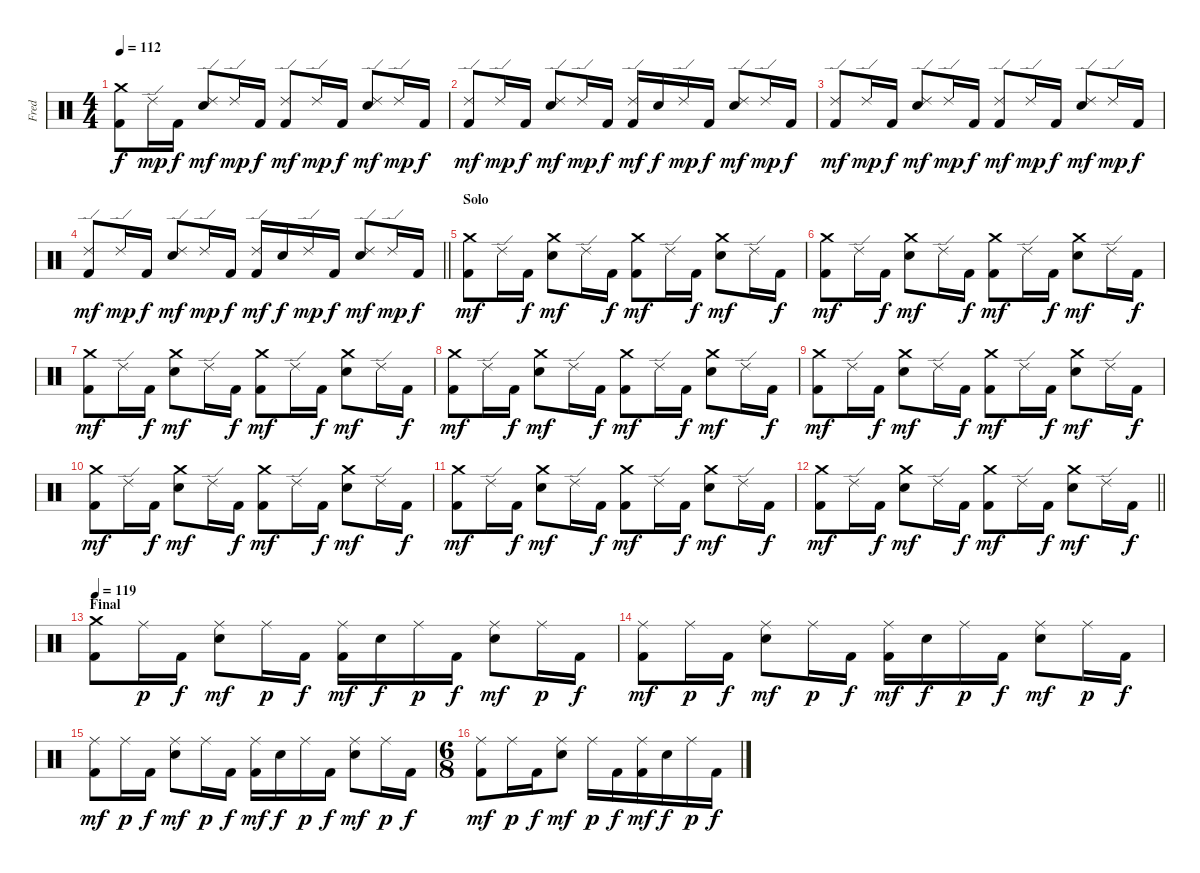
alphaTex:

\track ("Fred" "Fred") {instrument percussion}
\staff {score}
\articulation defaults
\ts (4 4)
\tempo 112
\clef neutral
\ks c
("Crash medium (hit)" "Kick (hit) 2").8{dy f} "Ride (edge) 2".16{dy mp} "Kick (hit) 2".16{dy f} ("Ride (edge) 2" "Electric Snare (hit)").8{dy mf} "Ride (edge) 2".16{dy mp} "Kick (hit) 2".16{dy f} ("Ride (edge) 2" "Kick (hit) 2").8{dy mf} "Ride (edge) 2".16{dy mp} "Kick (hit) 2".16{dy f} ("Ride (edge) 2" "Electric Snare (hit)").8{dy mf} "Ride (edge) 2".16{dy mp} "Kick (hit) 2".16{dy f} |
("Ride (edge) 2" "Kick (hit) 2").8{dy mf} "Ride (edge) 2".16{dy mp} "Kick (hit) 2".16{dy f} ("Ride (edge) 2" "Electric Snare (hit)").8{dy mf} "Ride (edge) 2".16{dy mp} "Kick (hit) 2".16{dy f} ("Ride (edge) 2" "Kick (hit) 2").16{dy mf} "Electric Snare (hit)".16{dy f} "Ride (edge) 2".16{dy mp} "Kick (hit) 2".16{dy f} ("Ride (edge) 2" "Electric Snare (hit)").8{dy mf} "Ride (edge) 2".16{dy mp} "Kick (hit) 2".16{dy f} |
("Ride (edge) 2" "Kick (hit) 2").8{dy mf} "Ride (edge) 2".16{dy mp} "Kick (hit) 2".16{dy f} ("Ride (edge) 2" "Electric Snare (hit)").8{dy mf} "Ride (edge) 2".16{dy mp} "Kick (hit) 2".16{dy f} ("Ride (edge) 2" "Kick (hit) 2").8{dy mf} "Ride (edge) 2".16{dy mp} "Kick (hit) 2".16{dy f} ("Ride (edge) 2" "Electric Snare (hit)").8{dy mf} "Ride (edge) 2".16{dy mp} "Kick (hit) 2".16{dy f} |
\barLineRight lightlight
("Ride (edge) 2" "Kick (hit) 2").8{dy mf} "Ride (edge) 2".16{dy mp} "Kick (hit) 2".16{dy f} ("Ride (edge) 2" "Electric Snare (hit)").8{dy mf} "Ride (edge) 2".16{dy mp} "Kick (hit) 2".16{dy f} ("Ride (edge) 2" "Kick (hit) 2").16{dy mf} "Electric Snare (hit)".16{dy f} "Ride (edge) 2".16{dy mp} "Kick (hit) 2".16{dy f} ("Ride (edge) 2" "Electric Snare (hit)").8{dy mf} "Ride (edge) 2".16{dy mp} "Kick (hit) 2".16{dy f} |
\section ("" "Solo")
("Crash medium (hit)" "Kick (hit) 2").8{dy mf} "Ride (edge) 2".16 "Kick (hit) 2".16{dy f} ("Crash medium (hit)" "Electric Snare (hit)").8{dy mf} "Ride (edge) 2".16 "Kick (hit) 2".16{dy f} ("Crash medium (hit)" "Kick (hit) 2").8{dy mf} "Ride (edge) 2".16 "Kick (hit) 2".16{dy f} ("Crash medium (hit)" "Electric Snare (hit)").8{dy mf} "Ride (edge) 2".16 "Kick (hit) 2".16{dy f} |
("Crash medium (hit)" "Kick (hit) 2").8{dy mf} "Ride (edge) 2".16 "Kick (hit) 2".16{dy f} ("Crash medium (hit)" "Electric Snare (hit)").8{dy mf} "Ride (edge) 2".16 "Kick (hit) 2".16{dy f} ("Crash medium (hit)" "Kick (hit) 2").8{dy mf} "Ride (edge) 2".16 "Kick (hit) 2".16{dy f} ("Crash medium (hit)" "Electric Snare (hit)").8{dy mf} "Ride (edge) 2".16 "Kick (hit) 2".16{dy f} |
("Crash medium (hit)" "Kick (hit) 2").8{dy mf} "Ride (edge) 2".16 "Kick (hit) 2".16{dy f} ("Crash medium (hit)" "Electric Snare (hit)").8{dy mf} "Ride (edge) 2".16 "Kick (hit) 2".16{dy f} ("Crash medium (hit)" "Kick (hit) 2").8{dy mf} "Ride (edge) 2".16 "Kick (hit) 2".16{dy f} ("Crash medium (hit)" "Electric Snare (hit)").8{dy mf} "Ride (edge) 2".16 "Kick (hit) 2".16{dy f} |
("Crash medium (hit)" "Kick (hit) 2").8{dy mf} "Ride (edge) 2".16 "Kick (hit) 2".16{dy f} ("Crash medium (hit)" "Electric Snare (hit)").8{dy mf} "Ride (edge) 2".16 "Kick (hit) 2".16{dy f} ("Crash medium (hit)" "Kick (hit) 2").8{dy mf} "Ride (edge) 2".16 "Kick (hit) 2".16{dy f} ("Crash medium (hit)" "Electric Snare (hit)").8{dy mf} "Ride (edge) 2".16 "Kick (hit) 2".16{dy f} |
("Crash medium (hit)" "Kick (hit) 2").8{dy mf} "Ride (edge) 2".16 "Kick (hit) 2".16{dy f} ("Crash medium (hit)" "Electric Snare (hit)").8{dy mf} "Ride (edge) 2".16 "Kick (hit) 2".16{dy f} ("Crash medium (hit)" "Kick (hit) 2").8{dy mf} "Ride (edge) 2".16 "Kick (hit) 2".16{dy f} ("Crash medium (hit)" "Electric Snare (hit)").8{dy mf} "Ride (edge) 2".16 "Kick (hit) 2".16{dy f} |
("Crash medium (hit)" "Kick (hit) 2").8{dy mf} "Ride (edge) 2".16 "Kick (hit) 2".16{dy f} ("Crash medium (hit)" "Electric Snare (hit)").8{dy mf} "Ride (edge) 2".16 "Kick (hit) 2".16{dy f} ("Crash medium (hit)" "Kick (hit) 2").8{dy mf} "Ride (edge) 2".16 "Kick (hit) 2".16{dy f} ("Crash medium (hit)" "Electric Snare (hit)").8{dy mf} "Ride (edge) 2".16 "Kick (hit) 2".16{dy f} |
("Crash medium (hit)" "Kick (hit) 2").8{dy mf} "Ride (edge) 2".16 "Kick (hit) 2".16{dy f} ("Crash medium (hit)" "Electric Snare (hit)").8{dy mf} "Ride (edge) 2".16 "Kick (hit) 2".16{dy f} ("Crash medium (hit)" "Kick (hit) 2").8{dy mf} "Ride (edge) 2".16 "Kick (hit) 2".16{dy f} ("Crash medium (hit)" "Electric Snare (hit)").8{dy mf} "Ride (edge) 2".16 "Kick (hit) 2".16{dy f} |
\barLineRight lightlight
("Crash medium (hit)" "Kick (hit) 2").8{dy mf} "Ride (edge) 2".16 "Kick (hit) 2".16{dy f} ("Crash medium (hit)" "Electric Snare (hit)").8{dy mf} "Ride (edge) 2".16 "Kick (hit) 2".16{dy f} ("Crash medium (hit)" "Kick (hit) 2").8{dy mf} "Ride (edge) 2".16 "Kick (hit) 2".16{dy f} ("Crash medium (hit)" "Electric Snare (hit)").8{dy mf} "Ride (edge) 2".16 "Kick (hit) 2".16{dy f} |
\section ("" "Final")
\tempo 119
("Crash medium (hit)" "Kick (hit) 2").8 "Ride (middle)".16{dy p} "Kick (hit) 2".16{dy f} ("Ride (middle)" "Electric Snare (hit)").8{dy mf} "Ride (middle)".16{dy p} "Kick (hit) 2".16{dy f} ("Ride (middle)" "Kick (hit) 2").16{dy mf} "Electric Snare (hit)".16{dy f} "Ride (middle)".16{dy p} "Kick (hit) 2".16{dy f} ("Ride (middle)" "Electric Snare (hit)").8{dy mf} "Ride (middle)".16{dy p} "Kick (hit) 2".16{dy f} |
("Ride (middle)" "Kick (hit) 2").8{dy mf} "Ride (middle)".16{dy p} "Kick (hit) 2".16{dy f} ("Ride (middle)" "Electric Snare (hit)").8{dy mf} "Ride (middle)".16{dy p} "Kick (hit) 2".16{dy f} ("Ride (middle)" "Kick (hit) 2").16{dy mf} "Electric Snare (hit)".16{dy f} "Ride (middle)".16{dy p} "Kick (hit) 2".16{dy f} ("Ride (middle)" "Electric Snare (hit)").8{dy mf} "Ride (middle)".16{dy p} "Kick (hit) 2".16{dy f} |
("Ride (middle)" "Kick (hit) 2").8{dy mf} "Ride (middle)".16{dy p} "Kick (hit) 2".16{dy f} ("Ride (middle)" "Electric Snare (hit)").8{dy mf} "Ride (middle)".16{dy p} "Kick (hit) 2".16{dy f} ("Ride (middle)" "Kick (hit) 2").16{dy mf} "Electric Snare (hit)".16{dy f} "Ride (middle)".16{dy p} "Kick (hit) 2".16{dy f} ("Ride (middle)" "Electric Snare (hit)").8{dy mf} "Ride (middle)".16{dy p} "Kick (hit) 2".16{dy f} |
\ts (6 8)
("Ride (middle)" "Kick (hit) 2").8{dy mf} "Ride (middle)".16{dy p} "Kick (hit) 2".16{dy f} ("Ride (middle)" "Electric Snare (hit)").8{dy mf} "Ride (middle)".16{dy p} "Kick (hit) 2".16{dy f} ("Ride (middle)" "Kick (hit) 2").16{dy mf} "Electric Snare (hit)".16{dy f} "Ride (middle)".16{dy p} "Kick (hit) 2".16{dy f}
